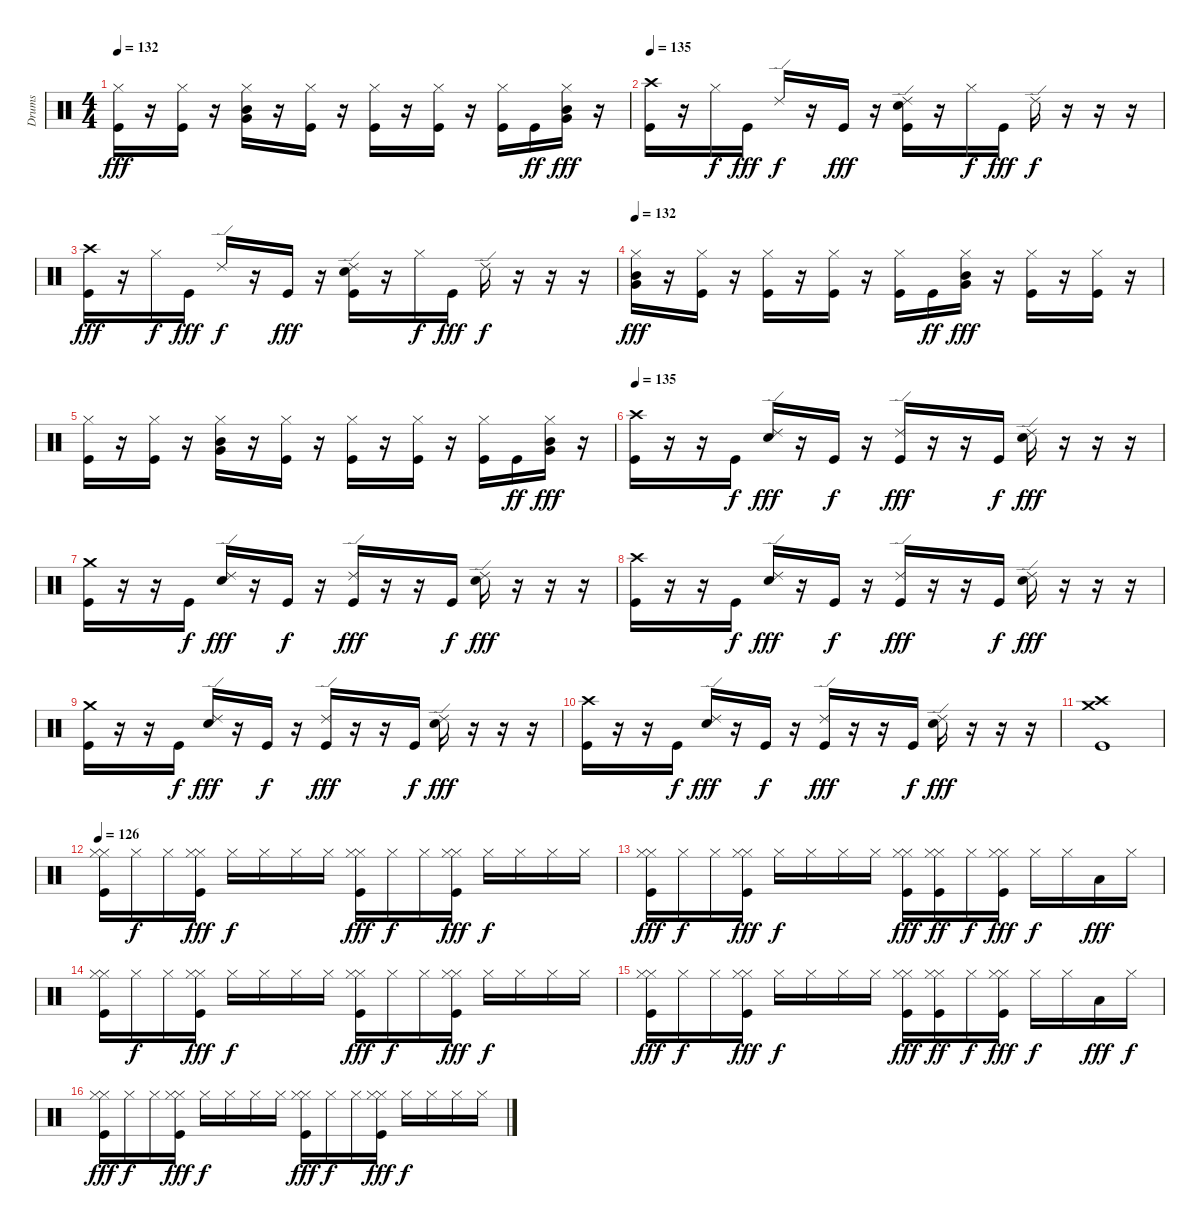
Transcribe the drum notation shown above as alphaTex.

\track ("Drums" "Drums") {instrument percussion}
\staff {score}
\articulation defaults
\ts (4 4)
\tempo 132
\clef neutral
\ks c
("Hi-Hat (closed)" "Kick (hit)").16{dy fff} r.16 ("Hi-Hat (closed)" "Kick (hit)").16 r.16 ("Hi-Hat (closed)" "Mid Tom (hit)" "Very Low Tom (hit)").16 r.16 ("Hi-Hat (closed)" "Kick (hit)").16 r.16 ("Hi-Hat (closed)" "Kick (hit)").16 r.16 ("Hi-Hat (closed)" "Kick (hit)").16 r.16 ("Hi-Hat (closed)" "Kick (hit)").16 "Kick (hit)".16{dy ff} ("Hi-Hat (closed)" "Mid Tom (hit)" "Very Low Tom (hit)").16{dy fff} r.16 |
\tempo 135
("Crash high (hit)" "Kick (hit)").16 r.16 "Hi-Hat (closed)".16{dy f} "Kick (hit)".16{dy fff} "Ride (edge) 2".16{dy f} r.16 "Kick (hit)".16{dy fff} r.16 ("Ride (edge) 2" "Snare (hit) 2" "Kick (hit)").16 r.16 "Hi-Hat (closed)".16{dy f} "Kick (hit)".16{dy fff} "Ride (edge) 2".16{dy f} r.16 r.16 r.16 |
("Crash high (hit)" "Kick (hit)").16{dy fff} r.16 "Hi-Hat (closed)".16{dy f} "Kick (hit)".16{dy fff} "Ride (edge) 2".16{dy f} r.16 "Kick (hit)".16{dy fff} r.16 ("Ride (edge) 2" "Snare (hit) 2" "Kick (hit)").16 r.16 "Hi-Hat (closed)".16{dy f} "Kick (hit)".16{dy fff} "Ride (edge) 2".16{dy f} r.16 r.16 r.16 |
\tempo 132
("Hi-Hat (closed)" "Mid Tom (hit)" "Very Low Tom (hit)").16{dy fff} r.16 ("Hi-Hat (closed)" "Kick (hit)").16 r.16 ("Hi-Hat (closed)" "Kick (hit)").16 r.16 ("Hi-Hat (closed)" "Kick (hit)").16 r.16 ("Hi-Hat (closed)" "Kick (hit)").16 "Kick (hit)".16{dy ff} ("Hi-Hat (closed)" "Mid Tom (hit)" "Very Low Tom (hit)").16{dy fff} r.16 ("Hi-Hat (closed)" "Kick (hit)").16 r.16 ("Hi-Hat (closed)" "Kick (hit)").16 r.16 |
("Hi-Hat (closed)" "Kick (hit)").16 r.16 ("Hi-Hat (closed)" "Kick (hit)").16 r.16 ("Hi-Hat (closed)" "Mid Tom (hit)" "Very Low Tom (hit)").16 r.16 ("Hi-Hat (closed)" "Kick (hit)").16 r.16 ("Hi-Hat (closed)" "Kick (hit)").16 r.16 ("Hi-Hat (closed)" "Kick (hit)").16 r.16 ("Hi-Hat (closed)" "Kick (hit)").16 "Kick (hit)".16{dy ff} ("Hi-Hat (closed)" "Mid Tom (hit)" "Very Low Tom (hit)").16{dy fff} r.16 |
\tempo 135
("Crash high (hit)" "Kick (hit)").16 r.16 r.16 "Kick (hit)".16{dy f} ("Ride (edge) 2" "Snare (hit) 2").16{dy fff} r.16 "Kick (hit)".16{dy f} r.16 ("Ride (edge) 2" "Kick (hit)").16{dy fff} r.16 r.16 "Kick (hit)".16{dy f} ("Ride (edge) 2" "Snare (hit) 2").16{dy fff} r.16 r.16 r.16 |
("Crash medium (hit)" "Kick (hit)").16 r.16 r.16 "Kick (hit)".16{dy f} ("Ride (edge) 2" "Snare (hit) 2").16{dy fff} r.16 "Kick (hit)".16{dy f} r.16 ("Ride (edge) 2" "Kick (hit)").16{dy fff} r.16 r.16 "Kick (hit)".16{dy f} ("Ride (edge) 2" "Snare (hit) 2").16{dy fff} r.16 r.16 r.16 |
("Crash high (hit)" "Kick (hit)").16 r.16 r.16 "Kick (hit)".16{dy f} ("Ride (edge) 2" "Snare (hit) 2").16{dy fff} r.16 "Kick (hit)".16{dy f} r.16 ("Ride (edge) 2" "Kick (hit)").16{dy fff} r.16 r.16 "Kick (hit)".16{dy f} ("Ride (edge) 2" "Snare (hit) 2").16{dy fff} r.16 r.16 r.16 |
("Crash medium (hit)" "Kick (hit)").16 r.16 r.16 "Kick (hit)".16{dy f} ("Ride (edge) 2" "Snare (hit) 2").16{dy fff} r.16 "Kick (hit)".16{dy f} r.16 ("Ride (edge) 2" "Kick (hit)").16{dy fff} r.16 r.16 "Kick (hit)".16{dy f} ("Ride (edge) 2" "Snare (hit) 2").16{dy fff} r.16 r.16 r.16 |
("Crash high (hit)" "Kick (hit)").16 r.16 r.16 "Kick (hit)".16{dy f} ("Ride (edge) 2" "Snare (hit) 2").16{dy fff} r.16 "Kick (hit)".16{dy f} r.16 ("Ride (edge) 2" "Kick (hit)").16{dy fff} r.16 r.16 "Kick (hit)".16{dy f} ("Ride (edge) 2" "Snare (hit) 2").16{dy fff} r.16 r.16 r.16 |
("Crash high (hit)" "Crash medium (hit)" "Kick (hit)").1 |
\tempo 126
("Hi-Hat (closed)" "Hi-Hat (closed)" "Kick (hit)").16 "Hi-Hat (closed)".16{dy f} "Hi-Hat (closed)".16 ("Hi-Hat (closed)" "Hi-Hat (closed)" "Kick (hit)").16{dy fff} "Hi-Hat (closed)".16{dy f} "Hi-Hat (closed)".16 "Hi-Hat (closed)".16 "Hi-Hat (closed)".16 ("Hi-Hat (closed)" "Hi-Hat (closed)" "Kick (hit)").16{dy fff} "Hi-Hat (closed)".16{dy f} "Hi-Hat (closed)".16 ("Hi-Hat (closed)" "Hi-Hat (closed)" "Kick (hit)").16{dy fff} "Hi-Hat (closed)".16{dy f} "Hi-Hat (closed)".16 "Hi-Hat (closed)".16 "Hi-Hat (closed)".16 |
("Hi-Hat (closed)" "Hi-Hat (closed)" "Kick (hit)").16{dy fff} "Hi-Hat (closed)".16{dy f} "Hi-Hat (closed)".16 ("Hi-Hat (closed)" "Hi-Hat (closed)" "Kick (hit)").16{dy fff} "Hi-Hat (closed)".16{dy f} "Hi-Hat (closed)".16 "Hi-Hat (closed)".16 "Hi-Hat (closed)".16 ("Hi-Hat (closed)" "Hi-Hat (closed)" "Kick (hit)").16{dy fff} ("Hi-Hat (closed)" "Hi-Hat (closed)" "Kick (hit)").16{dy ff} "Hi-Hat (closed)".16{dy f} ("Hi-Hat (closed)" "Hi-Hat (closed)" "Kick (hit)").16{dy fff} "Hi-Hat (closed)".16{dy f} "Hi-Hat (closed)".16 "Low Floor Tom (hit)".16{dy fff} "Hi-Hat (closed)".16 |
("Hi-Hat (closed)" "Hi-Hat (closed)" "Kick (hit)").16 "Hi-Hat (closed)".16{dy f} "Hi-Hat (closed)".16 ("Hi-Hat (closed)" "Hi-Hat (closed)" "Kick (hit)").16{dy fff} "Hi-Hat (closed)".16{dy f} "Hi-Hat (closed)".16 "Hi-Hat (closed)".16 "Hi-Hat (closed)".16 ("Hi-Hat (closed)" "Hi-Hat (closed)" "Kick (hit)").16{dy fff} "Hi-Hat (closed)".16{dy f} "Hi-Hat (closed)".16 ("Hi-Hat (closed)" "Hi-Hat (closed)" "Kick (hit)").16{dy fff} "Hi-Hat (closed)".16{dy f} "Hi-Hat (closed)".16 "Hi-Hat (closed)".16 "Hi-Hat (closed)".16 |
("Hi-Hat (closed)" "Hi-Hat (closed)" "Kick (hit)").16{dy fff} "Hi-Hat (closed)".16{dy f} "Hi-Hat (closed)".16 ("Hi-Hat (closed)" "Hi-Hat (closed)" "Kick (hit)").16{dy fff} "Hi-Hat (closed)".16{dy f} "Hi-Hat (closed)".16 "Hi-Hat (closed)".16 "Hi-Hat (closed)".16 ("Hi-Hat (closed)" "Hi-Hat (closed)" "Kick (hit)").16{dy fff} ("Hi-Hat (closed)" "Hi-Hat (closed)" "Kick (hit)").16{dy ff} "Hi-Hat (closed)".16{dy f} ("Hi-Hat (closed)" "Hi-Hat (closed)" "Kick (hit)").16{dy fff} "Hi-Hat (closed)".16{dy f} "Hi-Hat (closed)".16 "Low Floor Tom (hit)".16{dy fff} "Hi-Hat (closed)".16{dy f} |
("Hi-Hat (closed)" "Hi-Hat (closed)" "Kick (hit)").16{dy fff} "Hi-Hat (closed)".16{dy f} "Hi-Hat (closed)".16 ("Hi-Hat (closed)" "Hi-Hat (closed)" "Kick (hit)").16{dy fff} "Hi-Hat (closed)".16{dy f} "Hi-Hat (closed)".16 "Hi-Hat (closed)".16 "Hi-Hat (closed)".16 ("Hi-Hat (closed)" "Hi-Hat (closed)" "Kick (hit)").16{dy fff} "Hi-Hat (closed)".16{dy f} "Hi-Hat (closed)".16 ("Hi-Hat (closed)" "Hi-Hat (closed)" "Kick (hit)").16{dy fff} "Hi-Hat (closed)".16{dy f} "Hi-Hat (closed)".16 "Hi-Hat (closed)".16 "Hi-Hat (closed)".16
